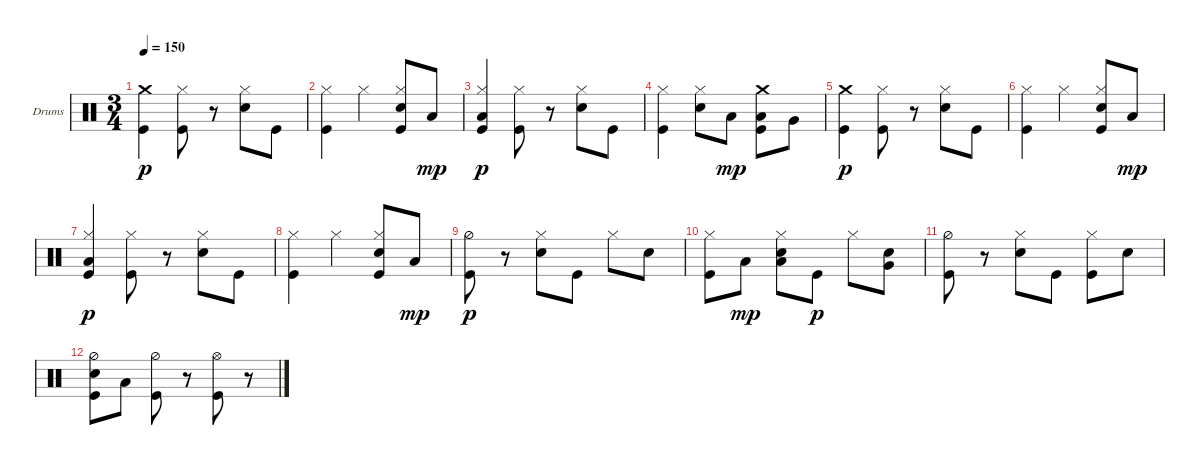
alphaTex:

\bracketExtendMode groupsimilarinstruments
\firstSystemTrackNameOrientation horizontal
\otherSystemsTrackNameOrientation horizontal
\track ("Drumkit" "Drums") {instrument percussion}
\staff {score}
\articulation defaults
\ts (3 4)
\tempo 150
\clef neutral
\ks c
("Crash medium (hit)" "Kick (hit)").4{dy p} ("Kick (hit)" "Hi-Hat (closed)").8 r.8 ("Hi-Hat (closed)" "Snare (hit) 2").8 "Kick (hit)".8 |
("Kick (hit)" "Hi-Hat (closed)").4 "Hi-Hat (closed)".4 ("Kick (hit)" "Hi-Hat (closed)" "Snare (hit) 2").8 "Low Tom (hit)".8{dy mp} |
("Kick (hit)" "Hi-Hat (closed)" "Low Tom (hit)").4{dy p} ("Kick (hit)" "Hi-Hat (closed)").8 r.8 ("Hi-Hat (closed)" "Snare (hit) 2").8 "Kick (hit)".8 |
("Kick (hit)" "Hi-Hat (closed)").4 ("Hi-Hat (closed)" "Snare (hit) 2").8 "Low Tom (hit)".8{dy mp} ("Kick (hit)" "Crash medium (hit)" "Low Tom (hit)").8 "Very Low Tom (hit)".8 |
("Crash medium (hit)" "Kick (hit)").4{dy p} ("Kick (hit)" "Hi-Hat (closed)").8 r.8 ("Hi-Hat (closed)" "Snare (hit) 2").8 "Kick (hit)".8 |
("Kick (hit)" "Hi-Hat (closed)").4 "Hi-Hat (closed)".4 ("Kick (hit)" "Hi-Hat (closed)" "Snare (hit) 2").8 "Low Tom (hit)".8{dy mp} |
("Kick (hit)" "Hi-Hat (closed)" "Low Tom (hit)").4{dy p} ("Kick (hit)" "Hi-Hat (closed)").8 r.8 ("Hi-Hat (closed)" "Snare (hit) 2").8 "Kick (hit)".8 |
("Kick (hit)" "Hi-Hat (closed)").4 "Hi-Hat (closed)".4 ("Kick (hit)" "Hi-Hat (closed)" "Snare (hit) 2").8 "Low Tom (hit)".8{dy mp} |
("Kick (hit)" "Hi-Hat (half)").8{dy p} r.8 ("Snare (hit) 2" "Hi-Hat (closed)").8 "Kick (hit)".8 "Hi-Hat (closed)".8 "Snare (hit) 2".8 |
("Kick (hit)" "Hi-Hat (closed)").8 "Low Tom (hit)".8{dy mp} ("Snare (hit) 2" "Hi-Hat (closed)" "Low Tom (hit)").8 "Kick (hit)".8{dy p} "Hi-Hat (closed)".8 ("Snare (hit) 2" "Very Low Tom (hit)").8 |
("Kick (hit)" "Hi-Hat (half)").8 r.8 ("Snare (hit) 2" "Hi-Hat (closed)").8 "Kick (hit)".8 ("Kick (hit)" "Hi-Hat (closed)").8 "Snare (hit) 2".8 |
("Snare (hit) 2" "Kick (hit)" "Hi-Hat (half)").8 "Low Tom (hit)".8 ("Kick (hit)" "Hi-Hat (half)").8 r.8 ("Kick (hit)" "Hi-Hat (open)").8 r.8
